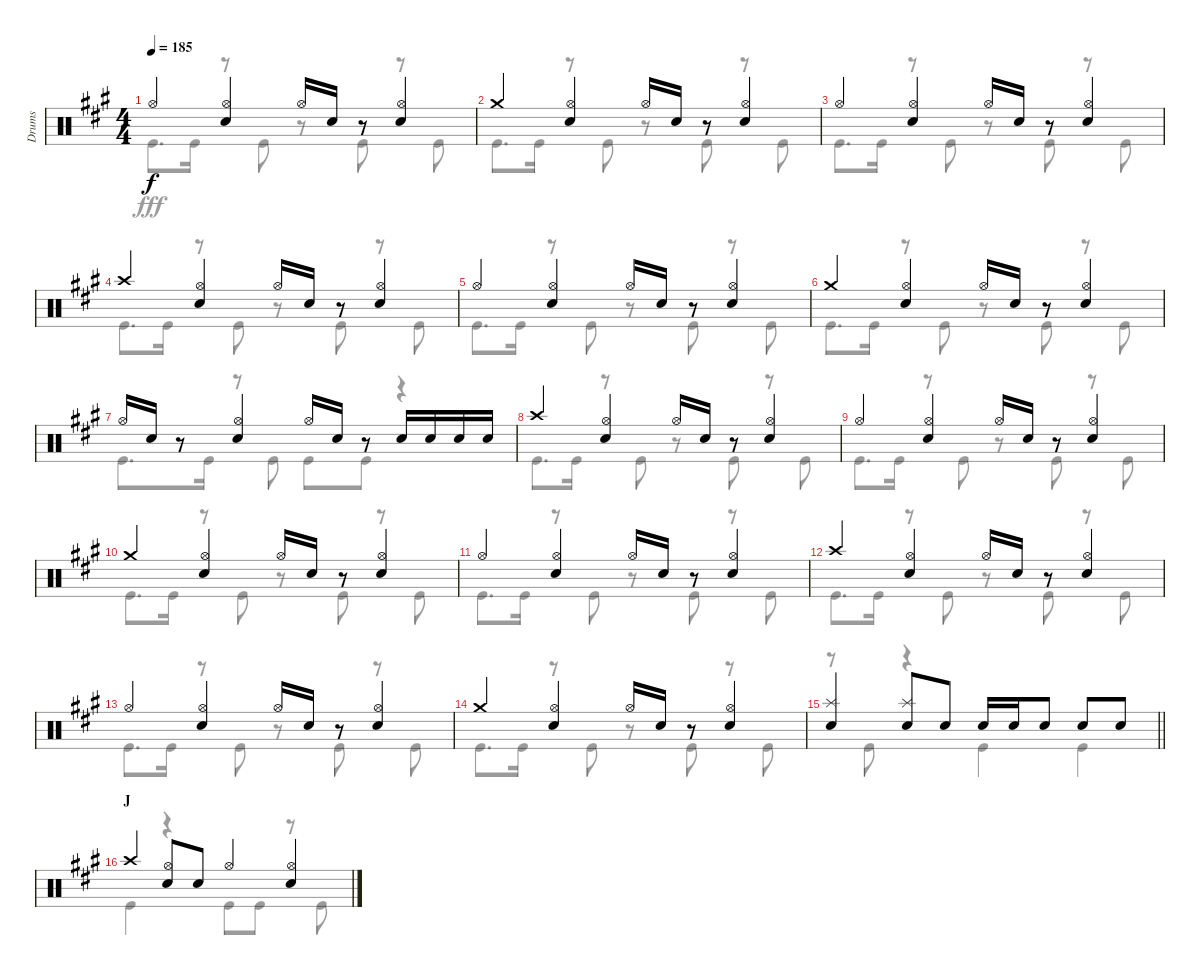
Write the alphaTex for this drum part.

\track ("Drums" "Drums") {instrument percussion}
\staff {score}
\articulation defaults
\voice
\ts (4 4)
\tempo 185
\clef neutral
\ks a "Hi-Hat (open)".4{dy f}
("Hi-Hat (open)" "Snare (hit) 2").4 "Hi-Hat (open)".16 "Snare (hit) 2".16 r.8 ("Hi-Hat (open)" "Snare (hit) 2").4 |
"Crash medium (hit)".4 ("Hi-Hat (open)" "Snare (hit) 2").4 "Hi-Hat (open)".16 "Snare (hit) 2".16 r.8 ("Hi-Hat (open)" "Snare (hit) 2").4 |
"Hi-Hat (open)".4 ("Hi-Hat (open)" "Snare (hit) 2").4 "Hi-Hat (open)".16 "Snare (hit) 2".16 r.8 ("Hi-Hat (open)" "Snare (hit) 2").4 |
"Crash high (hit)".4 ("Hi-Hat (open)" "Snare (hit) 2").4 "Hi-Hat (open)".16 "Snare (hit) 2".16 r.8 ("Hi-Hat (open)" "Snare (hit) 2").4 |
"Hi-Hat (open)".4 ("Hi-Hat (open)" "Snare (hit) 2").4 "Hi-Hat (open)".16 "Snare (hit) 2".16 r.8 ("Hi-Hat (open)" "Snare (hit) 2").4 |
"Crash medium (hit)".4 ("Hi-Hat (open)" "Snare (hit) 2").4 "Hi-Hat (open)".16 "Snare (hit) 2".16 r.8 ("Hi-Hat (open)" "Snare (hit) 2").4 |
"Hi-Hat (open)".16 "Snare (hit) 2".16 r.8 ("Hi-Hat (open)" "Snare (hit) 2").4 "Hi-Hat (open)".16 "Snare (hit) 2".16 r.8 "Snare (hit) 2".16 "Snare (hit) 2".16 "Snare (hit) 2".16 "Snare (hit) 2".16 |
"Crash high (hit)".4 ("Hi-Hat (open)" "Snare (hit) 2").4 "Hi-Hat (open)".16 "Snare (hit) 2".16 r.8 ("Hi-Hat (open)" "Snare (hit) 2").4 |
"Hi-Hat (open)".4 ("Hi-Hat (open)" "Snare (hit) 2").4 "Hi-Hat (open)".16 "Snare (hit) 2".16 r.8 ("Hi-Hat (open)" "Snare (hit) 2").4 |
"Crash medium (hit)".4 ("Hi-Hat (open)" "Snare (hit) 2").4 "Hi-Hat (open)".16 "Snare (hit) 2".16 r.8 ("Hi-Hat (open)" "Snare (hit) 2").4 |
"Hi-Hat (open)".4 ("Hi-Hat (open)" "Snare (hit) 2").4 "Hi-Hat (open)".16 "Snare (hit) 2".16 r.8 ("Hi-Hat (open)" "Snare (hit) 2").4 |
"Crash high (hit)".4 ("Hi-Hat (open)" "Snare (hit) 2").4 "Hi-Hat (open)".16 "Snare (hit) 2".16 r.8 ("Hi-Hat (open)" "Snare (hit) 2").4 |
"Hi-Hat (open)".4 ("Hi-Hat (open)" "Snare (hit) 2").4 "Hi-Hat (open)".16 "Snare (hit) 2".16 r.8 ("Hi-Hat (open)" "Snare (hit) 2").4 |
"Crash medium (hit)".4 ("Hi-Hat (open)" "Snare (hit) 2").4 "Hi-Hat (open)".16 "Snare (hit) 2".16 r.8 ("Hi-Hat (open)" "Snare (hit) 2").4 |
\barLineRight lightlight
("Splash (hit)" "Snare (hit) 2").4 ("Splash (hit)" "Snare (hit) 2").8 "Snare (hit) 2".8 "Snare (hit) 2".16 "Snare (hit) 2".16 "Snare (hit) 2".8 "Snare (hit) 2".8 "Snare (hit) 2".8 |
\section ("" "J")
"Crash high (hit)".4 ("Hi-Hat (open)" "Snare (hit) 2").8 "Snare (hit) 2".8 "Hi-Hat (open)".4 ("Hi-Hat (open)" "Snare (hit) 2").4
\voice
\clef neutral
\ottava regular
\simile none
\ks a "Kick (hit)".8{d dy fff} "Kick (hit)".16
r.8 "Kick (hit)".8 r.8 "Kick (hit)".8 r.8 "Kick (hit)".8 |
"Kick (hit)".8{d} "Kick (hit)".16 r.8 "Kick (hit)".8 r.8 "Kick (hit)".8 r.8 "Kick (hit)".8 |
"Kick (hit)".8{d} "Kick (hit)".16 r.8 "Kick (hit)".8 r.8 "Kick (hit)".8 r.8 "Kick (hit)".8 |
"Kick (hit)".8{d} "Kick (hit)".16 r.8 "Kick (hit)".8 r.8 "Kick (hit)".8 r.8 "Kick (hit)".8 |
"Kick (hit)".8{d} "Kick (hit)".16 r.8 "Kick (hit)".8 r.8 "Kick (hit)".8 r.8 "Kick (hit)".8 |
"Kick (hit)".8{d} "Kick (hit)".16 r.8 "Kick (hit)".8 r.8 "Kick (hit)".8 r.8 "Kick (hit)".8 |
"Kick (hit)".8{d} "Kick (hit)".16 r.8 "Kick (hit)".8 "Kick (hit)".8 "Kick (hit)".8 r.4 |
"Kick (hit)".8{d} "Kick (hit)".16 r.8 "Kick (hit)".8 r.8 "Kick (hit)".8 r.8 "Kick (hit)".8 |
"Kick (hit)".8{d} "Kick (hit)".16 r.8 "Kick (hit)".8 r.8 "Kick (hit)".8 r.8 "Kick (hit)".8 |
"Kick (hit)".8{d} "Kick (hit)".16 r.8 "Kick (hit)".8 r.8 "Kick (hit)".8 r.8 "Kick (hit)".8 |
"Kick (hit)".8{d} "Kick (hit)".16 r.8 "Kick (hit)".8 r.8 "Kick (hit)".8 r.8 "Kick (hit)".8 |
"Kick (hit)".8{d} "Kick (hit)".16 r.8 "Kick (hit)".8 r.8 "Kick (hit)".8 r.8 "Kick (hit)".8 |
"Kick (hit)".8{d} "Kick (hit)".16 r.8 "Kick (hit)".8 r.8 "Kick (hit)".8 r.8 "Kick (hit)".8 |
"Kick (hit)".8{d} "Kick (hit)".16 r.8 "Kick (hit)".8 r.8 "Kick (hit)".8 r.8 "Kick (hit)".8 |
\barLineRight lightlight
r.8 "Kick (hit)".8 r.4 "Kick (hit)".4 "Kick (hit)".4 |
"Kick (hit)".4 r.4 "Kick (hit)".8 "Kick (hit)".8 r.8 "Kick (hit)".8
